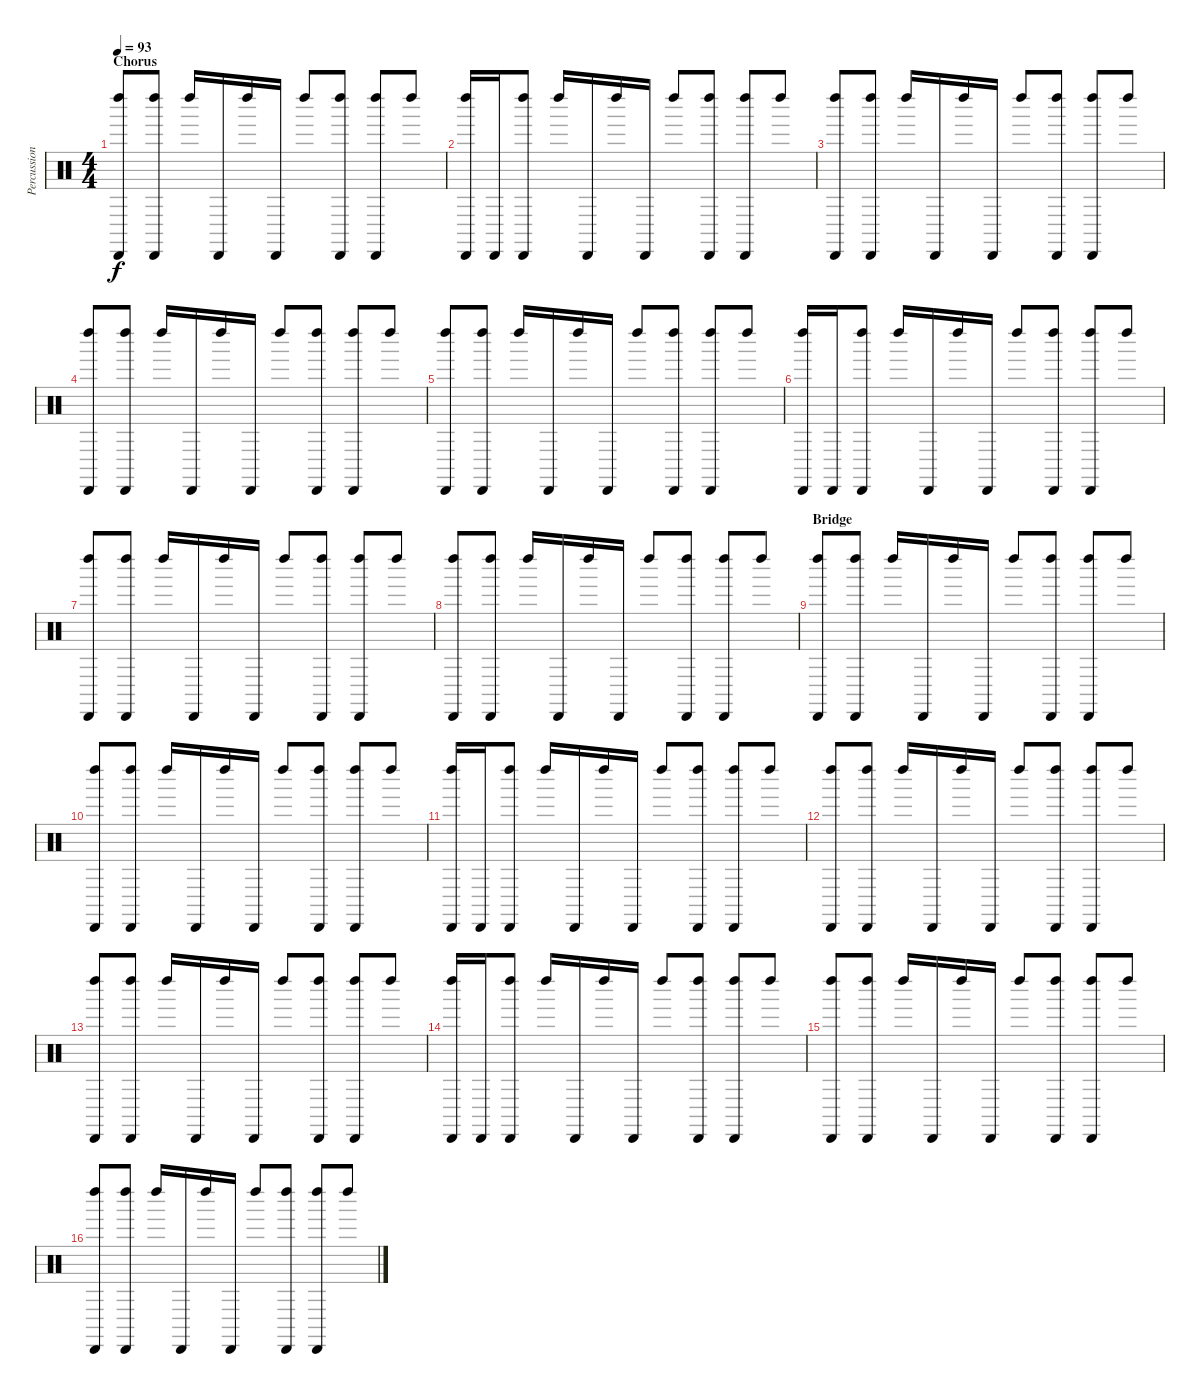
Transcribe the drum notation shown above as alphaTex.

\track ("Percussion" "Percussion") {instrument percussion}
\staff {score}
\articulation defaults
\ts (4 4)
\section ("" "Chorus")
\tempo 93
\clef neutral
\ks c
("Left Maraca (hit)" "Cabasa (hit)").8{dy f} ("Left Maraca (hit)" "Cabasa (hit)").8 "Left Maraca (hit)".16 "Cabasa (hit)".16 "Left Maraca (hit)".16 "Cabasa (hit)".16 "Left Maraca (hit)".8 ("Left Maraca (hit)" "Cabasa (hit)").8 ("Left Maraca (hit)" "Cabasa (hit)").8 "Left Maraca (hit)".8 |
("Left Maraca (hit)" "Cabasa (hit)").16 "Cabasa (hit)".16 ("Left Maraca (hit)" "Cabasa (hit)").8 "Left Maraca (hit)".16 "Cabasa (hit)".16 "Left Maraca (hit)".16 "Cabasa (hit)".16 "Left Maraca (hit)".8 ("Left Maraca (hit)" "Cabasa (hit)").8 ("Left Maraca (hit)" "Cabasa (hit)").8 "Left Maraca (hit)".8 |
("Left Maraca (hit)" "Cabasa (hit)").8 ("Left Maraca (hit)" "Cabasa (hit)").8 "Left Maraca (hit)".16 "Cabasa (hit)".16 "Left Maraca (hit)".16 "Cabasa (hit)".16 "Left Maraca (hit)".8 ("Left Maraca (hit)" "Cabasa (hit)").8 ("Left Maraca (hit)" "Cabasa (hit)").8 "Left Maraca (hit)".8 |
("Left Maraca (hit)" "Cabasa (hit)").8 ("Left Maraca (hit)" "Cabasa (hit)").8 "Left Maraca (hit)".16 "Cabasa (hit)".16 "Left Maraca (hit)".16 "Cabasa (hit)".16 "Left Maraca (hit)".8 ("Left Maraca (hit)" "Cabasa (hit)").8 ("Left Maraca (hit)" "Cabasa (hit)").8 "Left Maraca (hit)".8 |
("Left Maraca (hit)" "Cabasa (hit)").8 ("Left Maraca (hit)" "Cabasa (hit)").8 "Left Maraca (hit)".16 "Cabasa (hit)".16 "Left Maraca (hit)".16 "Cabasa (hit)".16 "Left Maraca (hit)".8 ("Left Maraca (hit)" "Cabasa (hit)").8 ("Left Maraca (hit)" "Cabasa (hit)").8 "Left Maraca (hit)".8 |
("Left Maraca (hit)" "Cabasa (hit)").16 "Cabasa (hit)".16 ("Left Maraca (hit)" "Cabasa (hit)").8 "Left Maraca (hit)".16 "Cabasa (hit)".16 "Left Maraca (hit)".16 "Cabasa (hit)".16 "Left Maraca (hit)".8 ("Left Maraca (hit)" "Cabasa (hit)").8 ("Left Maraca (hit)" "Cabasa (hit)").8 "Left Maraca (hit)".8 |
("Left Maraca (hit)" "Cabasa (hit)").8 ("Left Maraca (hit)" "Cabasa (hit)").8 "Left Maraca (hit)".16 "Cabasa (hit)".16 "Left Maraca (hit)".16 "Cabasa (hit)".16 "Left Maraca (hit)".8 ("Left Maraca (hit)" "Cabasa (hit)").8 ("Left Maraca (hit)" "Cabasa (hit)").8 "Left Maraca (hit)".8 |
("Left Maraca (hit)" "Cabasa (hit)").8 ("Left Maraca (hit)" "Cabasa (hit)").8 "Left Maraca (hit)".16 "Cabasa (hit)".16 "Left Maraca (hit)".16 "Cabasa (hit)".16 "Left Maraca (hit)".8 ("Left Maraca (hit)" "Cabasa (hit)").8 ("Left Maraca (hit)" "Cabasa (hit)").8 "Left Maraca (hit)".8 |
\section ("" "Bridge")
("Left Maraca (hit)" "Cabasa (hit)").8 ("Left Maraca (hit)" "Cabasa (hit)").8 "Left Maraca (hit)".16 "Cabasa (hit)".16 "Left Maraca (hit)".16 "Cabasa (hit)".16 "Left Maraca (hit)".8 ("Left Maraca (hit)" "Cabasa (hit)").8 ("Left Maraca (hit)" "Cabasa (hit)").8 "Left Maraca (hit)".8 |
("Left Maraca (hit)" "Cabasa (hit)").8 ("Left Maraca (hit)" "Cabasa (hit)").8 "Left Maraca (hit)".16 "Cabasa (hit)".16 "Left Maraca (hit)".16 "Cabasa (hit)".16 "Left Maraca (hit)".8 ("Left Maraca (hit)" "Cabasa (hit)").8 ("Left Maraca (hit)" "Cabasa (hit)").8 "Left Maraca (hit)".8 |
("Left Maraca (hit)" "Cabasa (hit)").16 "Cabasa (hit)".16 ("Left Maraca (hit)" "Cabasa (hit)").8 "Left Maraca (hit)".16 "Cabasa (hit)".16 "Left Maraca (hit)".16 "Cabasa (hit)".16 "Left Maraca (hit)".8 ("Left Maraca (hit)" "Cabasa (hit)").8 ("Left Maraca (hit)" "Cabasa (hit)").8 "Left Maraca (hit)".8 |
("Left Maraca (hit)" "Cabasa (hit)").8 ("Left Maraca (hit)" "Cabasa (hit)").8 "Left Maraca (hit)".16 "Cabasa (hit)".16 "Left Maraca (hit)".16 "Cabasa (hit)".16 "Left Maraca (hit)".8 ("Left Maraca (hit)" "Cabasa (hit)").8 ("Left Maraca (hit)" "Cabasa (hit)").8 "Left Maraca (hit)".8 |
("Left Maraca (hit)" "Cabasa (hit)").8 ("Left Maraca (hit)" "Cabasa (hit)").8 "Left Maraca (hit)".16 "Cabasa (hit)".16 "Left Maraca (hit)".16 "Cabasa (hit)".16 "Left Maraca (hit)".8 ("Left Maraca (hit)" "Cabasa (hit)").8 ("Left Maraca (hit)" "Cabasa (hit)").8 "Left Maraca (hit)".8 |
("Left Maraca (hit)" "Cabasa (hit)").16 "Cabasa (hit)".16 ("Left Maraca (hit)" "Cabasa (hit)").8 "Left Maraca (hit)".16 "Cabasa (hit)".16 "Left Maraca (hit)".16 "Cabasa (hit)".16 "Left Maraca (hit)".8 ("Left Maraca (hit)" "Cabasa (hit)").8 ("Left Maraca (hit)" "Cabasa (hit)").8 "Left Maraca (hit)".8 |
("Left Maraca (hit)" "Cabasa (hit)").8 ("Left Maraca (hit)" "Cabasa (hit)").8 "Left Maraca (hit)".16 "Cabasa (hit)".16 "Left Maraca (hit)".16 "Cabasa (hit)".16 "Left Maraca (hit)".8 ("Left Maraca (hit)" "Cabasa (hit)").8 ("Left Maraca (hit)" "Cabasa (hit)").8 "Left Maraca (hit)".8 |
("Left Maraca (hit)" "Cabasa (hit)").8 ("Left Maraca (hit)" "Cabasa (hit)").8 "Left Maraca (hit)".16 "Cabasa (hit)".16 "Left Maraca (hit)".16 "Cabasa (hit)".16 "Left Maraca (hit)".8 ("Left Maraca (hit)" "Cabasa (hit)").8 ("Left Maraca (hit)" "Cabasa (hit)").8 "Left Maraca (hit)".8
